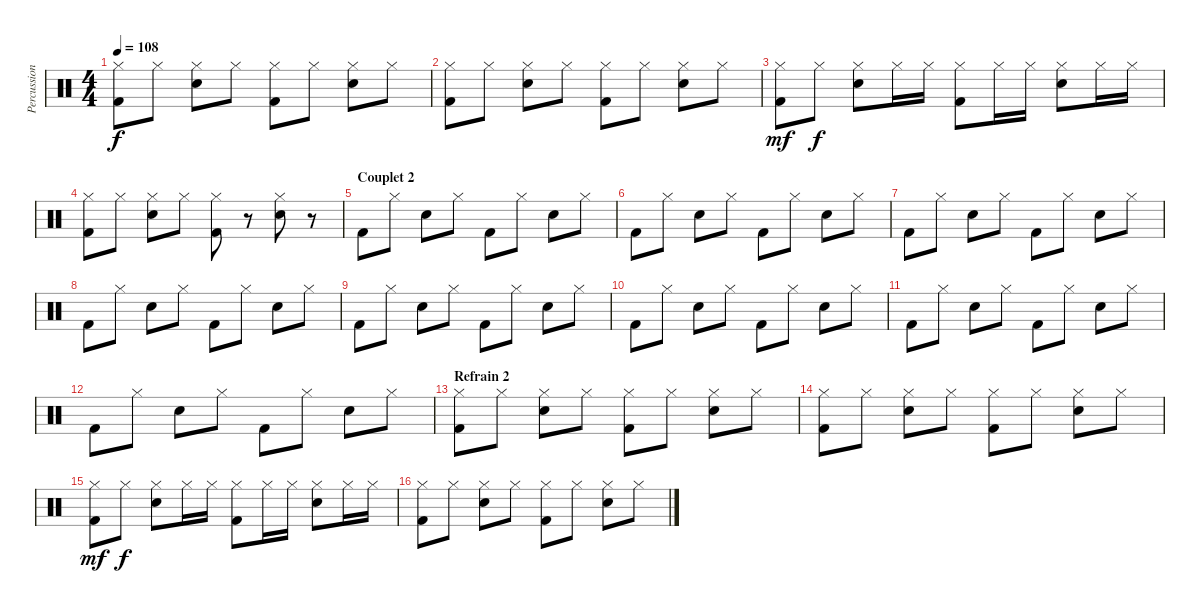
\track ("Percussions" "Percussion") {instrument percussion}
\staff {score}
\articulation defaults
\ts (4 4)
\tempo 108
\clef neutral
\ks c
("Hi-Hat (closed)" "Kick (hit) 2").8{dy f} "Hi-Hat (closed)".8 ("Hi-Hat (closed)" "Electric Snare (hit)").8 "Hi-Hat (closed)".8 ("Hi-Hat (closed)" "Kick (hit) 2").8 "Hi-Hat (closed)".8 ("Hi-Hat (closed)" "Electric Snare (hit)").8 "Hi-Hat (closed)".8 |
("Hi-Hat (closed)" "Kick (hit) 2").8 "Hi-Hat (closed)".8 ("Hi-Hat (closed)" "Electric Snare (hit)").8 "Hi-Hat (closed)".8 ("Hi-Hat (closed)" "Kick (hit) 2").8 "Hi-Hat (closed)".8 ("Hi-Hat (closed)" "Electric Snare (hit)").8 "Hi-Hat (closed)".8 |
("Hi-Hat (closed)" "Kick (hit) 2").8{dy mf} "Hi-Hat (closed)".8{dy f} ("Hi-Hat (closed)" "Electric Snare (hit)").8 "Hi-Hat (closed)".16 "Hi-Hat (closed)".16 ("Hi-Hat (closed)" "Kick (hit) 2").8 "Hi-Hat (closed)".16 "Hi-Hat (closed)".16 ("Hi-Hat (closed)" "Electric Snare (hit)").8 "Hi-Hat (closed)".16 "Hi-Hat (closed)".16 |
("Hi-Hat (closed)" "Kick (hit) 2").8 "Hi-Hat (closed)".8 ("Hi-Hat (closed)" "Electric Snare (hit)").8 "Hi-Hat (closed)".8 ("Hi-Hat (closed)" "Kick (hit) 2").8 r.8 ("Hi-Hat (closed)" "Electric Snare (hit)").8 r.8 |
\section ("" "Couplet 2")
"Kick (hit) 2".8 "Hi-Hat (closed)".8 "Electric Snare (hit)".8 "Hi-Hat (closed)".8 "Kick (hit) 2".8 "Hi-Hat (closed)".8 "Electric Snare (hit)".8 "Hi-Hat (closed)".8 |
"Kick (hit) 2".8 "Hi-Hat (closed)".8 "Electric Snare (hit)".8 "Hi-Hat (closed)".8 "Kick (hit) 2".8 "Hi-Hat (closed)".8 "Electric Snare (hit)".8 "Hi-Hat (closed)".8 |
"Kick (hit) 2".8 "Hi-Hat (closed)".8 "Electric Snare (hit)".8 "Hi-Hat (closed)".8 "Kick (hit) 2".8 "Hi-Hat (closed)".8 "Electric Snare (hit)".8 "Hi-Hat (closed)".8 |
"Kick (hit) 2".8 "Hi-Hat (closed)".8 "Electric Snare (hit)".8 "Hi-Hat (closed)".8 "Kick (hit) 2".8 "Hi-Hat (closed)".8 "Electric Snare (hit)".8 "Hi-Hat (closed)".8 |
"Kick (hit) 2".8 "Hi-Hat (closed)".8 "Electric Snare (hit)".8 "Hi-Hat (closed)".8 "Kick (hit) 2".8 "Hi-Hat (closed)".8 "Electric Snare (hit)".8 "Hi-Hat (closed)".8 |
"Kick (hit) 2".8 "Hi-Hat (closed)".8 "Electric Snare (hit)".8 "Hi-Hat (closed)".8 "Kick (hit) 2".8 "Hi-Hat (closed)".8 "Electric Snare (hit)".8 "Hi-Hat (closed)".8 |
"Kick (hit) 2".8 "Hi-Hat (closed)".8 "Electric Snare (hit)".8 "Hi-Hat (closed)".8 "Kick (hit) 2".8 "Hi-Hat (closed)".8 "Electric Snare (hit)".8 "Hi-Hat (closed)".8 |
"Kick (hit) 2".8 "Hi-Hat (closed)".8 "Electric Snare (hit)".8 "Hi-Hat (closed)".8 "Kick (hit) 2".8 "Hi-Hat (closed)".8 "Electric Snare (hit)".8 "Hi-Hat (closed)".8 |
\section ("" "Refrain 2")
("Hi-Hat (closed)" "Kick (hit) 2").8 "Hi-Hat (closed)".8 ("Hi-Hat (closed)" "Electric Snare (hit)").8 "Hi-Hat (closed)".8 ("Hi-Hat (closed)" "Kick (hit) 2").8 "Hi-Hat (closed)".8 ("Hi-Hat (closed)" "Electric Snare (hit)").8 "Hi-Hat (closed)".8 |
("Hi-Hat (closed)" "Kick (hit) 2").8 "Hi-Hat (closed)".8 ("Hi-Hat (closed)" "Electric Snare (hit)").8 "Hi-Hat (closed)".8 ("Hi-Hat (closed)" "Kick (hit) 2").8 "Hi-Hat (closed)".8 ("Hi-Hat (closed)" "Electric Snare (hit)").8 "Hi-Hat (closed)".8 |
("Hi-Hat (closed)" "Kick (hit) 2").8{dy mf} "Hi-Hat (closed)".8{dy f} ("Hi-Hat (closed)" "Electric Snare (hit)").8 "Hi-Hat (closed)".16 "Hi-Hat (closed)".16 ("Hi-Hat (closed)" "Kick (hit) 2").8 "Hi-Hat (closed)".16 "Hi-Hat (closed)".16 ("Hi-Hat (closed)" "Electric Snare (hit)").8 "Hi-Hat (closed)".16 "Hi-Hat (closed)".16 |
("Hi-Hat (closed)" "Kick (hit) 2").8 "Hi-Hat (closed)".8 ("Hi-Hat (closed)" "Electric Snare (hit)").8 "Hi-Hat (closed)".8 ("Hi-Hat (closed)" "Kick (hit) 2").8 "Hi-Hat (closed)".8 ("Hi-Hat (closed)" "Electric Snare (hit)").8 "Hi-Hat (closed)".8
